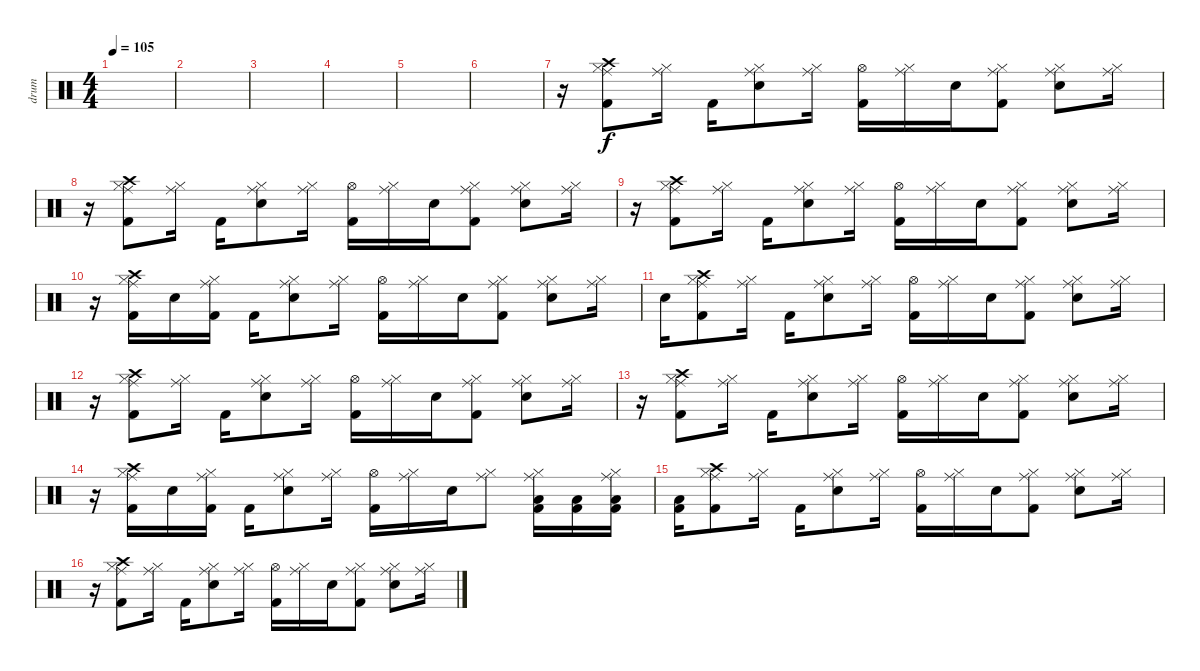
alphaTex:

\track ("drum" "drum") {instrument percussion}
\staff {score}
\articulation defaults
\ts (4 4)
\tempo 105
\clef neutral
\ks c
|
|
|
|
|
|
r.16 ("Crash high (hit)" "Hi-Hat (closed)" "Ride (middle)" "Kick (hit) 2").8 ("Hi-Hat (closed)" "Ride (middle)").16 "Kick (hit) 2".16 ("Hi-Hat (closed)" "Ride (middle)" "Electric Snare (hit)").8 ("Hi-Hat (closed)" "Ride (middle)").16 ("Hi-Hat (open)" "Kick (hit) 2").16 ("Hi-Hat (closed)" "Ride (middle)").16 "Electric Snare (hit)".16 ("Hi-Hat (closed)" "Ride (middle)" "Kick (hit) 2").8 ("Hi-Hat (closed)" "Ride (middle)" "Electric Snare (hit)").8 ("Hi-Hat (closed)" "Ride (middle)").16 |
r.16 ("Crash high (hit)" "Hi-Hat (closed)" "Ride (middle)" "Kick (hit) 2").8 ("Hi-Hat (closed)" "Ride (middle)").16 "Kick (hit) 2".16 ("Hi-Hat (closed)" "Ride (middle)" "Electric Snare (hit)").8 ("Hi-Hat (closed)" "Ride (middle)").16 ("Hi-Hat (open)" "Kick (hit) 2").16 ("Hi-Hat (closed)" "Ride (middle)").16 "Electric Snare (hit)".16 ("Hi-Hat (closed)" "Ride (middle)" "Kick (hit) 2").8 ("Hi-Hat (closed)" "Ride (middle)" "Electric Snare (hit)").8 ("Hi-Hat (closed)" "Ride (middle)").16 |
r.16 ("Crash high (hit)" "Hi-Hat (closed)" "Ride (middle)" "Kick (hit) 2").8 ("Hi-Hat (closed)" "Ride (middle)").16 "Kick (hit) 2".16 ("Hi-Hat (closed)" "Ride (middle)" "Electric Snare (hit)").8 ("Hi-Hat (closed)" "Ride (middle)").16 ("Hi-Hat (open)" "Kick (hit) 2").16 ("Hi-Hat (closed)" "Ride (middle)").16 "Electric Snare (hit)".16 ("Hi-Hat (closed)" "Ride (middle)" "Kick (hit) 2").8 ("Hi-Hat (closed)" "Ride (middle)" "Electric Snare (hit)").8 ("Hi-Hat (closed)" "Ride (middle)").16 |
r.16 ("Crash high (hit)" "Hi-Hat (closed)" "Ride (middle)" "Kick (hit) 2").16 "Electric Snare (hit)".16 ("Hi-Hat (closed)" "Ride (middle)" "Kick (hit) 2").16 "Kick (hit) 2".16 ("Hi-Hat (closed)" "Ride (middle)" "Electric Snare (hit)").8 ("Hi-Hat (closed)" "Ride (middle)").16 ("Hi-Hat (open)" "Kick (hit) 2").16 ("Hi-Hat (closed)" "Ride (middle)").16 "Electric Snare (hit)".16 ("Hi-Hat (closed)" "Ride (middle)" "Kick (hit) 2").8 ("Hi-Hat (closed)" "Ride (middle)" "Electric Snare (hit)").8 ("Hi-Hat (closed)" "Ride (middle)").16 |
"Electric Snare (hit)".16 ("Crash high (hit)" "Hi-Hat (closed)" "Ride (middle)" "Kick (hit) 2").8 ("Hi-Hat (closed)" "Ride (middle)").16 "Kick (hit) 2".16 ("Hi-Hat (closed)" "Ride (middle)" "Electric Snare (hit)").8 ("Hi-Hat (closed)" "Ride (middle)").16 ("Hi-Hat (open)" "Kick (hit) 2").16 ("Hi-Hat (closed)" "Ride (middle)").16 "Electric Snare (hit)".16 ("Hi-Hat (closed)" "Ride (middle)" "Kick (hit) 2").8 ("Hi-Hat (closed)" "Ride (middle)" "Electric Snare (hit)").8 ("Hi-Hat (closed)" "Ride (middle)").16 |
r.16 ("Crash high (hit)" "Hi-Hat (closed)" "Ride (middle)" "Kick (hit) 2").8 ("Hi-Hat (closed)" "Ride (middle)").16 "Kick (hit) 2".16 ("Hi-Hat (closed)" "Ride (middle)" "Electric Snare (hit)").8 ("Hi-Hat (closed)" "Ride (middle)").16 ("Hi-Hat (open)" "Kick (hit) 2").16 ("Hi-Hat (closed)" "Ride (middle)").16 "Electric Snare (hit)".16 ("Hi-Hat (closed)" "Ride (middle)" "Kick (hit) 2").8 ("Hi-Hat (closed)" "Ride (middle)" "Electric Snare (hit)").8 ("Hi-Hat (closed)" "Ride (middle)").16 |
r.16 ("Crash high (hit)" "Hi-Hat (closed)" "Ride (middle)" "Kick (hit) 2").8 ("Hi-Hat (closed)" "Ride (middle)").16 "Kick (hit) 2".16 ("Hi-Hat (closed)" "Ride (middle)" "Electric Snare (hit)").8 ("Hi-Hat (closed)" "Ride (middle)").16 ("Hi-Hat (open)" "Kick (hit) 2").16 ("Hi-Hat (closed)" "Ride (middle)").16 "Electric Snare (hit)".16 ("Hi-Hat (closed)" "Ride (middle)" "Kick (hit) 2").8 ("Hi-Hat (closed)" "Ride (middle)" "Electric Snare (hit)").8 ("Hi-Hat (closed)" "Ride (middle)").16 |
r.16 ("Crash high (hit)" "Hi-Hat (closed)" "Ride (middle)" "Kick (hit) 2").16 "Electric Snare (hit)".16 ("Hi-Hat (closed)" "Ride (middle)" "Kick (hit) 2").16 "Kick (hit) 2".16 ("Hi-Hat (closed)" "Ride (middle)" "Electric Snare (hit)").8 ("Hi-Hat (closed)" "Ride (middle)").16 ("Hi-Hat (open)" "Kick (hit) 2").16 ("Hi-Hat (closed)" "Ride (middle)").16 "Electric Snare (hit)".16 ("Hi-Hat (closed)" "Ride (middle)").8 ("Hi-Hat (closed)" "Ride (middle)" "Low Floor Tom (hit)" "Kick (hit) 2").16 ("Low Floor Tom (hit)" "Kick (hit) 2").16 ("Hi-Hat (closed)" "Ride (middle)" "Low Floor Tom (hit)" "Kick (hit) 2").16 |
("Low Floor Tom (hit)" "Kick (hit) 2").16 ("Crash high (hit)" "Hi-Hat (closed)" "Ride (middle)" "Kick (hit) 2").8 ("Hi-Hat (closed)" "Ride (middle)").16 "Kick (hit) 2".16 ("Hi-Hat (closed)" "Ride (middle)" "Electric Snare (hit)").8 ("Hi-Hat (closed)" "Ride (middle)").16 ("Hi-Hat (open)" "Kick (hit) 2").16 ("Hi-Hat (closed)" "Ride (middle)").16 "Electric Snare (hit)".16 ("Hi-Hat (closed)" "Ride (middle)" "Kick (hit) 2").8 ("Hi-Hat (closed)" "Ride (middle)" "Electric Snare (hit)").8 ("Hi-Hat (closed)" "Ride (middle)").16 |
r.16 ("Crash high (hit)" "Hi-Hat (closed)" "Ride (middle)" "Kick (hit) 2").8 ("Hi-Hat (closed)" "Ride (middle)").16 "Kick (hit) 2".16 ("Hi-Hat (closed)" "Ride (middle)" "Electric Snare (hit)").8 ("Hi-Hat (closed)" "Ride (middle)").16 ("Hi-Hat (open)" "Kick (hit) 2").16 ("Hi-Hat (closed)" "Ride (middle)").16 "Electric Snare (hit)".16 ("Hi-Hat (closed)" "Ride (middle)" "Kick (hit) 2").8 ("Hi-Hat (closed)" "Ride (middle)" "Electric Snare (hit)").8 ("Hi-Hat (closed)" "Ride (middle)").16
